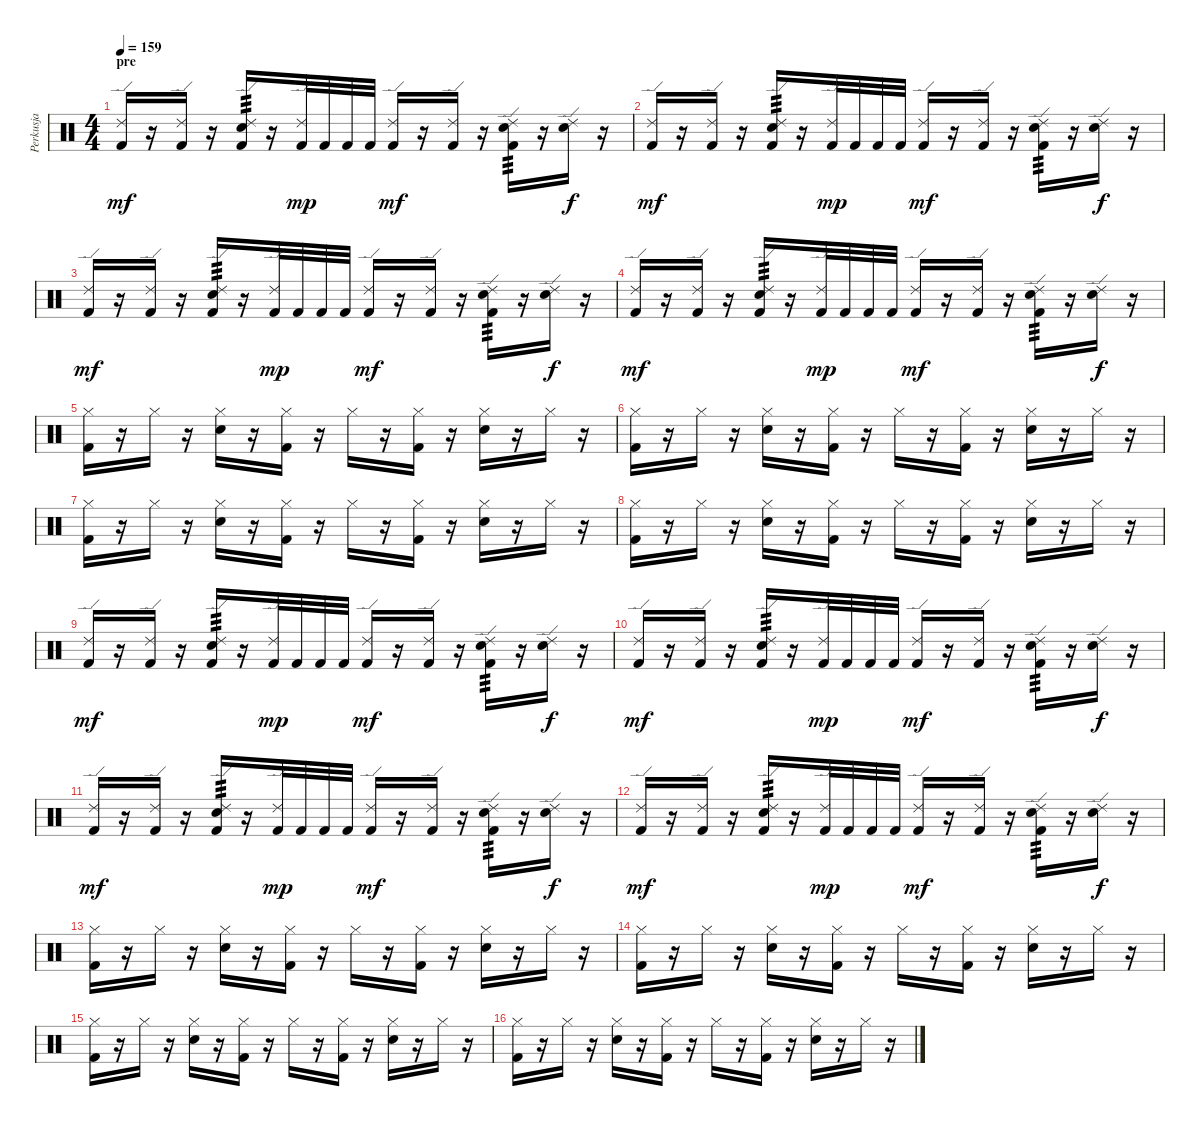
\track ("Perkusja" "Perkusja") {instrument percussion}
\staff {score}
\articulation defaults
\ts (4 4)
\section ("" "pre")
\tempo 159
\clef neutral
\ks c
("Ride (edge) 2" "Kick (hit) 2").16{dy mf} r.16 ("Ride (edge) 2" "Kick (hit) 2").16 r.16 ("Ride (edge) 2" "Electric Snare (hit)" "Kick (hit) 2").16{tp 3} r.16 ("Ride (edge) 2" "Kick (hit) 2").32{dy mp} "Kick (hit) 2".32 "Kick (hit) 2".32 "Kick (hit) 2".32 ("Ride (edge) 2" "Kick (hit) 2").16{dy mf} r.16 ("Ride (edge) 2" "Kick (hit) 2").16 r.16 ("Ride (edge) 2" "Electric Snare (hit)" "Kick (hit) 2").16{tp 3} r.16 ("Ride (edge) 2" "Electric Snare (hit)").16{dy f} r.16 |
("Ride (edge) 2" "Kick (hit) 2").16{dy mf} r.16 ("Ride (edge) 2" "Kick (hit) 2").16 r.16 ("Ride (edge) 2" "Electric Snare (hit)" "Kick (hit) 2").16{tp 3} r.16 ("Ride (edge) 2" "Kick (hit) 2").32{dy mp} "Kick (hit) 2".32 "Kick (hit) 2".32 "Kick (hit) 2".32 ("Ride (edge) 2" "Kick (hit) 2").16{dy mf} r.16 ("Ride (edge) 2" "Kick (hit) 2").16 r.16 ("Ride (edge) 2" "Electric Snare (hit)" "Kick (hit) 2").16{tp 3} r.16 ("Ride (edge) 2" "Electric Snare (hit)").16{dy f} r.16 |
("Ride (edge) 2" "Kick (hit) 2").16{dy mf} r.16 ("Ride (edge) 2" "Kick (hit) 2").16 r.16 ("Ride (edge) 2" "Electric Snare (hit)" "Kick (hit) 2").16{tp 3} r.16 ("Ride (edge) 2" "Kick (hit) 2").32{dy mp} "Kick (hit) 2".32 "Kick (hit) 2".32 "Kick (hit) 2".32 ("Ride (edge) 2" "Kick (hit) 2").16{dy mf} r.16 ("Ride (edge) 2" "Kick (hit) 2").16 r.16 ("Ride (edge) 2" "Electric Snare (hit)" "Kick (hit) 2").16{tp 3} r.16 ("Ride (edge) 2" "Electric Snare (hit)").16{dy f} r.16 |
("Ride (edge) 2" "Kick (hit) 2").16{dy mf} r.16 ("Ride (edge) 2" "Kick (hit) 2").16 r.16 ("Ride (edge) 2" "Electric Snare (hit)" "Kick (hit) 2").16{tp 3} r.16 ("Ride (edge) 2" "Kick (hit) 2").32{dy mp} "Kick (hit) 2".32 "Kick (hit) 2".32 "Kick (hit) 2".32 ("Ride (edge) 2" "Kick (hit) 2").16{dy mf} r.16 ("Ride (edge) 2" "Kick (hit) 2").16 r.16 ("Ride (edge) 2" "Electric Snare (hit)" "Kick (hit) 2").16{tp 3} r.16 ("Ride (edge) 2" "Electric Snare (hit)").16{dy f} r.16 |
("Hi-Hat (closed)" "Kick (hit) 2").16 r.16 "Hi-Hat (closed)".16 r.16 ("Hi-Hat (closed)" "Electric Snare (hit)").16 r.16 ("Hi-Hat (closed)" "Kick (hit) 2").16 r.16 "Hi-Hat (closed)".16 r.16 ("Hi-Hat (closed)" "Kick (hit) 2").16 r.16 ("Hi-Hat (closed)" "Electric Snare (hit)").16 r.16 "Hi-Hat (closed)".16 r.16 |
("Hi-Hat (closed)" "Kick (hit) 2").16 r.16 "Hi-Hat (closed)".16 r.16 ("Hi-Hat (closed)" "Electric Snare (hit)").16 r.16 ("Hi-Hat (closed)" "Kick (hit) 2").16 r.16 "Hi-Hat (closed)".16 r.16 ("Hi-Hat (closed)" "Kick (hit) 2").16 r.16 ("Hi-Hat (closed)" "Electric Snare (hit)").16 r.16 "Hi-Hat (closed)".16 r.16 |
("Hi-Hat (closed)" "Kick (hit) 2").16 r.16 "Hi-Hat (closed)".16 r.16 ("Hi-Hat (closed)" "Electric Snare (hit)").16 r.16 ("Hi-Hat (closed)" "Kick (hit) 2").16 r.16 "Hi-Hat (closed)".16 r.16 ("Hi-Hat (closed)" "Kick (hit) 2").16 r.16 ("Hi-Hat (closed)" "Electric Snare (hit)").16 r.16 "Hi-Hat (closed)".16 r.16 |
("Hi-Hat (closed)" "Kick (hit) 2").16 r.16 "Hi-Hat (closed)".16 r.16 ("Hi-Hat (closed)" "Electric Snare (hit)").16 r.16 ("Hi-Hat (closed)" "Kick (hit) 2").16 r.16 "Hi-Hat (closed)".16 r.16 ("Hi-Hat (closed)" "Kick (hit) 2").16 r.16 ("Hi-Hat (closed)" "Electric Snare (hit)").16 r.16 "Hi-Hat (closed)".16 r.16 |
("Ride (edge) 2" "Kick (hit) 2").16{dy mf} r.16 ("Ride (edge) 2" "Kick (hit) 2").16 r.16 ("Ride (edge) 2" "Electric Snare (hit)" "Kick (hit) 2").16{tp 3} r.16 ("Ride (edge) 2" "Kick (hit) 2").32{dy mp} "Kick (hit) 2".32 "Kick (hit) 2".32 "Kick (hit) 2".32 ("Ride (edge) 2" "Kick (hit) 2").16{dy mf} r.16 ("Ride (edge) 2" "Kick (hit) 2").16 r.16 ("Ride (edge) 2" "Electric Snare (hit)" "Kick (hit) 2").16{tp 3} r.16 ("Ride (edge) 2" "Electric Snare (hit)").16{dy f} r.16 |
("Ride (edge) 2" "Kick (hit) 2").16{dy mf} r.16 ("Ride (edge) 2" "Kick (hit) 2").16 r.16 ("Ride (edge) 2" "Electric Snare (hit)" "Kick (hit) 2").16{tp 3} r.16 ("Ride (edge) 2" "Kick (hit) 2").32{dy mp} "Kick (hit) 2".32 "Kick (hit) 2".32 "Kick (hit) 2".32 ("Ride (edge) 2" "Kick (hit) 2").16{dy mf} r.16 ("Ride (edge) 2" "Kick (hit) 2").16 r.16 ("Ride (edge) 2" "Electric Snare (hit)" "Kick (hit) 2").16{tp 3} r.16 ("Ride (edge) 2" "Electric Snare (hit)").16{dy f} r.16 |
("Ride (edge) 2" "Kick (hit) 2").16{dy mf} r.16 ("Ride (edge) 2" "Kick (hit) 2").16 r.16 ("Ride (edge) 2" "Electric Snare (hit)" "Kick (hit) 2").16{tp 3} r.16 ("Ride (edge) 2" "Kick (hit) 2").32{dy mp} "Kick (hit) 2".32 "Kick (hit) 2".32 "Kick (hit) 2".32 ("Ride (edge) 2" "Kick (hit) 2").16{dy mf} r.16 ("Ride (edge) 2" "Kick (hit) 2").16 r.16 ("Ride (edge) 2" "Electric Snare (hit)" "Kick (hit) 2").16{tp 3} r.16 ("Ride (edge) 2" "Electric Snare (hit)").16{dy f} r.16 |
("Ride (edge) 2" "Kick (hit) 2").16{dy mf} r.16 ("Ride (edge) 2" "Kick (hit) 2").16 r.16 ("Ride (edge) 2" "Electric Snare (hit)" "Kick (hit) 2").16{tp 3} r.16 ("Ride (edge) 2" "Kick (hit) 2").32{dy mp} "Kick (hit) 2".32 "Kick (hit) 2".32 "Kick (hit) 2".32 ("Ride (edge) 2" "Kick (hit) 2").16{dy mf} r.16 ("Ride (edge) 2" "Kick (hit) 2").16 r.16 ("Ride (edge) 2" "Electric Snare (hit)" "Kick (hit) 2").16{tp 3} r.16 ("Ride (edge) 2" "Electric Snare (hit)").16{dy f} r.16 |
("Hi-Hat (closed)" "Kick (hit) 2").16 r.16 "Hi-Hat (closed)".16 r.16 ("Hi-Hat (closed)" "Electric Snare (hit)").16 r.16 ("Hi-Hat (closed)" "Kick (hit) 2").16 r.16 "Hi-Hat (closed)".16 r.16 ("Hi-Hat (closed)" "Kick (hit) 2").16 r.16 ("Hi-Hat (closed)" "Electric Snare (hit)").16 r.16 "Hi-Hat (closed)".16 r.16 |
("Hi-Hat (closed)" "Kick (hit) 2").16 r.16 "Hi-Hat (closed)".16 r.16 ("Hi-Hat (closed)" "Electric Snare (hit)").16 r.16 ("Hi-Hat (closed)" "Kick (hit) 2").16 r.16 "Hi-Hat (closed)".16 r.16 ("Hi-Hat (closed)" "Kick (hit) 2").16 r.16 ("Hi-Hat (closed)" "Electric Snare (hit)").16 r.16 "Hi-Hat (closed)".16 r.16 |
("Hi-Hat (closed)" "Kick (hit) 2").16 r.16 "Hi-Hat (closed)".16 r.16 ("Hi-Hat (closed)" "Electric Snare (hit)").16 r.16 ("Hi-Hat (closed)" "Kick (hit) 2").16 r.16 "Hi-Hat (closed)".16 r.16 ("Hi-Hat (closed)" "Kick (hit) 2").16 r.16 ("Hi-Hat (closed)" "Electric Snare (hit)").16 r.16 "Hi-Hat (closed)".16 r.16 |
("Hi-Hat (closed)" "Kick (hit) 2").16 r.16 "Hi-Hat (closed)".16 r.16 ("Hi-Hat (closed)" "Electric Snare (hit)").16 r.16 ("Hi-Hat (closed)" "Kick (hit) 2").16 r.16 "Hi-Hat (closed)".16 r.16 ("Hi-Hat (closed)" "Kick (hit) 2").16 r.16 ("Hi-Hat (closed)" "Electric Snare (hit)").16 r.16 "Hi-Hat (closed)".16 r.16
